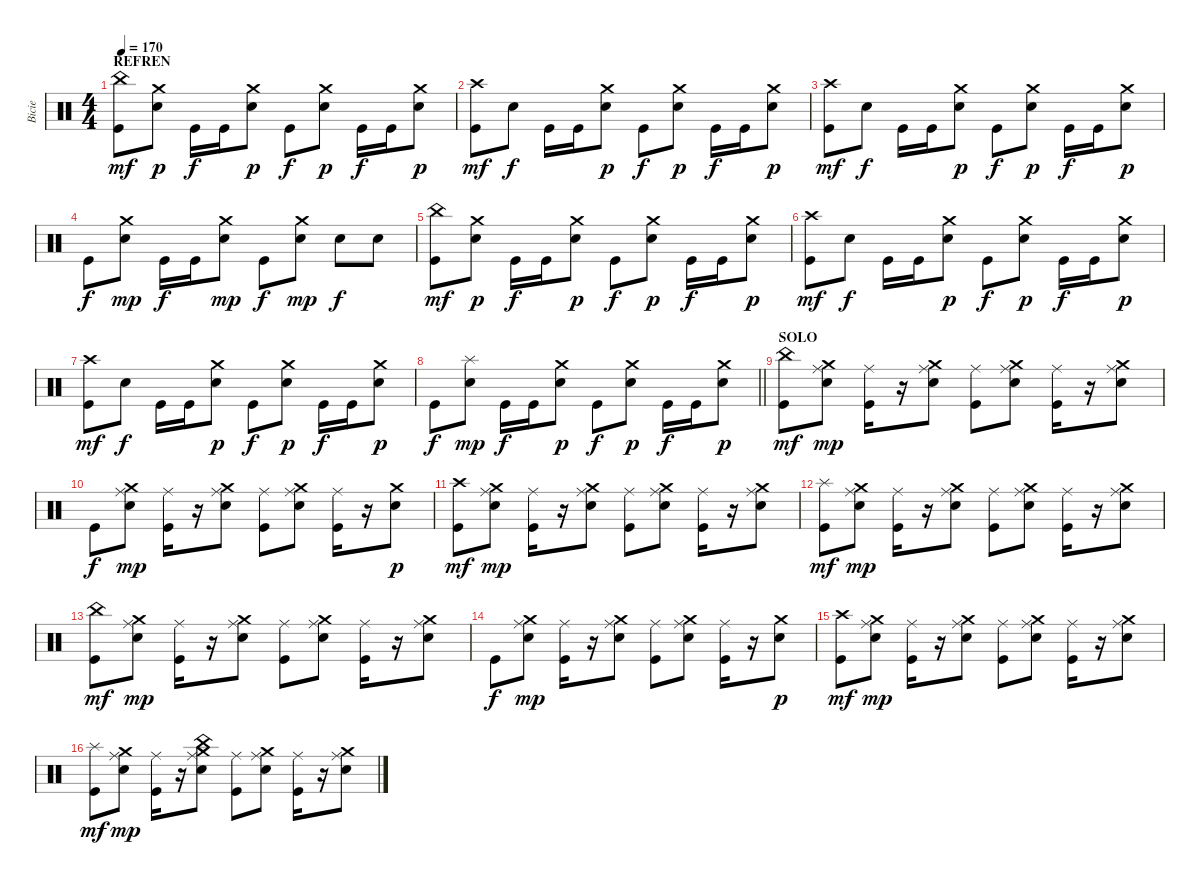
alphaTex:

\track ("Bicie" "Bicie") {instrument percussion}
\staff {score}
\articulation defaults
\ts (4 4)
\section ("" "REFREN")
\tempo 170
\clef neutral
\ks c
("Kick (hit)" "China (hit)").8{dy mf} ("Snare (hit) 2" "Crash medium (hit)").8{dy p} "Kick (hit)".16{dy f} "Kick (hit)".16 ("Snare (hit) 2" "Crash medium (hit)").8{dy p} "Kick (hit)".8{dy f} ("Snare (hit) 2" "Crash medium (hit)").8{dy p} "Kick (hit)".16{dy f} "Kick (hit)".16 ("Snare (hit) 2" "Crash medium (hit)").8{dy p} |
("Kick (hit)" "Crash high (hit)").8{dy mf} "Snare (hit) 2".8{dy f} "Kick (hit)".16 "Kick (hit)".16 ("Snare (hit) 2" "Crash medium (hit)").8{dy p} "Kick (hit)".8{dy f} ("Snare (hit) 2" "Crash medium (hit)").8{dy p} "Kick (hit)".16{dy f} "Kick (hit)".16 ("Snare (hit) 2" "Crash medium (hit)").8{dy p} |
("Kick (hit)" "Crash high (hit)").8{dy mf} "Snare (hit) 2".8{dy f} "Kick (hit)".16 "Kick (hit)".16 ("Snare (hit) 2" "Crash medium (hit)").8{dy p} "Kick (hit)".8{dy f} ("Snare (hit) 2" "Crash medium (hit)").8{dy p} "Kick (hit)".16{dy f} "Kick (hit)".16 ("Snare (hit) 2" "Crash medium (hit)").8{dy p} |
"Kick (hit)".8{dy f} ("Snare (hit) 2" "Crash medium (hit)").8{dy mp} "Kick (hit)".16{dy f} "Kick (hit)".16 ("Snare (hit) 2" "Crash medium (hit)").8{dy mp} "Kick (hit)".8{dy f} ("Snare (hit) 2" "Crash medium (hit)").8{dy mp} "Snare (hit) 2".8{dy f} "Snare (hit) 2".8 |
("Kick (hit)" "China (hit)").8{dy mf} ("Snare (hit) 2" "Crash medium (hit)").8{dy p} "Kick (hit)".16{dy f} "Kick (hit)".16 ("Snare (hit) 2" "Crash medium (hit)").8{dy p} "Kick (hit)".8{dy f} ("Snare (hit) 2" "Crash medium (hit)").8{dy p} "Kick (hit)".16{dy f} "Kick (hit)".16 ("Snare (hit) 2" "Crash medium (hit)").8{dy p} |
("Kick (hit)" "Crash high (hit)").8{dy mf} "Snare (hit) 2".8{dy f} "Kick (hit)".16 "Kick (hit)".16 ("Snare (hit) 2" "Crash medium (hit)").8{dy p} "Kick (hit)".8{dy f} ("Snare (hit) 2" "Crash medium (hit)").8{dy p} "Kick (hit)".16{dy f} "Kick (hit)".16 ("Snare (hit) 2" "Crash medium (hit)").8{dy p} |
("Kick (hit)" "Crash high (hit)").8{dy mf} "Snare (hit) 2".8{dy f} "Kick (hit)".16 "Kick (hit)".16 ("Snare (hit) 2" "Crash medium (hit)").8{dy p} "Kick (hit)".8{dy f} ("Snare (hit) 2" "Crash medium (hit)").8{dy p} "Kick (hit)".16{dy f} "Kick (hit)".16 ("Snare (hit) 2" "Crash medium (hit)").8{dy p} |
\barLineRight lightlight "Kick (hit)".8{dy f}
("Snare (hit) 2" "Splash (hit)").8{dy mp} "Kick (hit)".16{dy f} "Kick (hit)".16 ("Snare (hit) 2" "Crash medium (hit)").8{dy p} "Kick (hit)".8{dy f} ("Snare (hit) 2" "Crash medium (hit)").8{dy p} "Kick (hit)".16{dy f} "Kick (hit)".16 ("Snare (hit) 2" "Crash medium (hit)").8{dy p} |
\section ("" "SOLO")
("Kick (hit)" "China (hit)").8{dy mf} ("Snare (hit) 2" "Crash medium (hit)" "Ride (middle)").8{dy mp} ("Kick (hit)" "Ride (middle)").16 r.16 ("Snare (hit) 2" "Crash medium (hit)" "Ride (middle)").8 ("Kick (hit)" "Ride (middle)").8 ("Snare (hit) 2" "Crash medium (hit)" "Ride (middle)").8 ("Kick (hit)" "Ride (middle)").16 r.16 ("Snare (hit) 2" "Crash medium (hit)" "Ride (middle)").8 |
"Kick (hit)".8{dy f} ("Snare (hit) 2" "Crash medium (hit)" "Ride (middle)").8{dy mp} ("Kick (hit)" "Ride (middle)").16 r.16 ("Snare (hit) 2" "Crash medium (hit)" "Ride (middle)").8 ("Kick (hit)" "Ride (middle)").8 ("Snare (hit) 2" "Crash medium (hit)" "Ride (middle)").8 ("Kick (hit)" "Ride (middle)").16 r.16 ("Snare (hit) 2" "Crash medium (hit)").8{dy p} |
("Kick (hit)" "Crash high (hit)").8{dy mf} ("Snare (hit) 2" "Crash medium (hit)" "Ride (middle)").8{dy mp} ("Kick (hit)" "Ride (middle)").16 r.16 ("Snare (hit) 2" "Crash medium (hit)" "Ride (middle)").8 ("Kick (hit)" "Ride (middle)").8 ("Snare (hit) 2" "Crash medium (hit)" "Ride (middle)").8 ("Kick (hit)" "Ride (middle)").16 r.16 ("Snare (hit) 2" "Crash medium (hit)" "Ride (middle)").8 |
("Kick (hit)" "Splash (hit)").8{dy mf} ("Snare (hit) 2" "Crash medium (hit)" "Ride (middle)").8{dy mp} ("Kick (hit)" "Ride (middle)").16 r.16 ("Snare (hit) 2" "Crash medium (hit)" "Ride (middle)").8 ("Kick (hit)" "Ride (middle)").8 ("Snare (hit) 2" "Crash medium (hit)" "Ride (middle)").8 ("Kick (hit)" "Ride (middle)").16 r.16 ("Snare (hit) 2" "Crash medium (hit)" "Ride (middle)").8 |
("Kick (hit)" "China (hit)").8{dy mf} ("Snare (hit) 2" "Crash medium (hit)" "Ride (middle)").8{dy mp} ("Kick (hit)" "Ride (middle)").16 r.16 ("Snare (hit) 2" "Crash medium (hit)" "Ride (middle)").8 ("Kick (hit)" "Ride (middle)").8 ("Snare (hit) 2" "Crash medium (hit)" "Ride (middle)").8 ("Kick (hit)" "Ride (middle)").16 r.16 ("Snare (hit) 2" "Crash medium (hit)" "Ride (middle)").8 |
"Kick (hit)".8{dy f} ("Snare (hit) 2" "Crash medium (hit)" "Ride (middle)").8{dy mp} ("Kick (hit)" "Ride (middle)").16 r.16 ("Snare (hit) 2" "Crash medium (hit)" "Ride (middle)").8 ("Kick (hit)" "Ride (middle)").8 ("Snare (hit) 2" "Crash medium (hit)" "Ride (middle)").8 ("Kick (hit)" "Ride (middle)").16 r.16 ("Snare (hit) 2" "Crash medium (hit)").8{dy p} |
("Kick (hit)" "Crash high (hit)").8{dy mf} ("Snare (hit) 2" "Crash medium (hit)" "Ride (middle)").8{dy mp} ("Kick (hit)" "Ride (middle)").16 r.16 ("Snare (hit) 2" "Crash medium (hit)" "Ride (middle)").8 ("Kick (hit)" "Ride (middle)").8 ("Snare (hit) 2" "Crash medium (hit)" "Ride (middle)").8 ("Kick (hit)" "Ride (middle)").16 r.16 ("Snare (hit) 2" "Crash medium (hit)" "Ride (middle)").8 |
("Kick (hit)" "Splash (hit)").8{dy mf} ("Snare (hit) 2" "Crash medium (hit)" "Ride (middle)").8{dy mp} ("Kick (hit)" "Ride (middle)").16 r.16 ("Snare (hit) 2" "China (hit)" "Crash medium (hit)" "Ride (middle)").8 ("Kick (hit)" "Ride (middle)").8 ("Snare (hit) 2" "Crash medium (hit)" "Ride (middle)").8 ("Kick (hit)" "Ride (middle)").16 r.16 ("Snare (hit) 2" "Crash medium (hit)" "Ride (middle)").8
